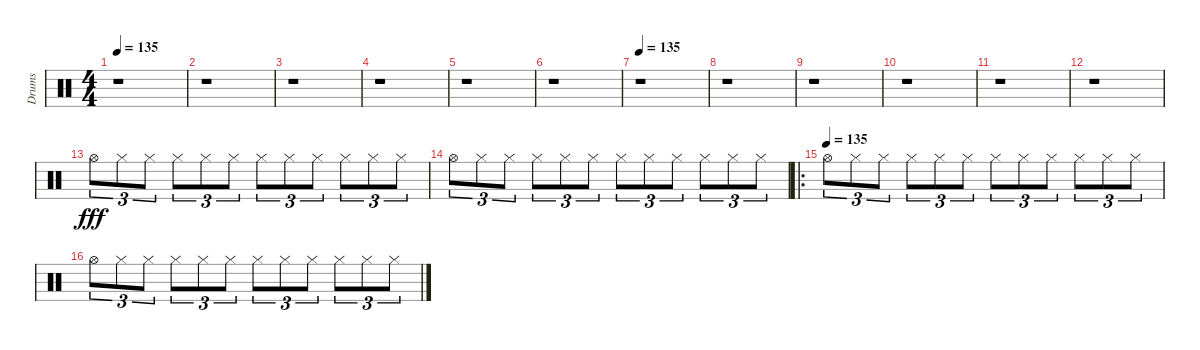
\track ("Drums" "Drums") {instrument percussion}
\staff {score}
\articulation defaults
\ts (4 4)
\tempo 135
\clef neutral
\ks c
r.1{dy fff} |
r.1 |
r.1 |
r.1 |
r.1 |
r.1 |
\tempo 135
r.1 |
r.1 |
r.1 |
r.1 |
r.1 |
r.1 |
"Hi-Hat (open)".8{tu (3 2)} "Hi-Hat (closed)".8{tu (3 2)} "Hi-Hat (closed)".8{tu (3 2)} "Hi-Hat (closed)".8{tu (3 2)} "Hi-Hat (closed)".8{tu (3 2)} "Hi-Hat (closed)".8{tu (3 2)} "Hi-Hat (closed)".8{tu (3 2)} "Hi-Hat (closed)".8{tu (3 2)} "Hi-Hat (closed)".8{tu (3 2)} "Hi-Hat (closed)".8{tu (3 2)} "Hi-Hat (closed)".8{tu (3 2)} "Hi-Hat (closed)".8{tu (3 2)} |
"Hi-Hat (open)".8{tu (3 2)} "Hi-Hat (closed)".8{tu (3 2)} "Hi-Hat (closed)".8{tu (3 2)} "Hi-Hat (closed)".8{tu (3 2)} "Hi-Hat (closed)".8{tu (3 2)} "Hi-Hat (closed)".8{tu (3 2)} "Hi-Hat (closed)".8{tu (3 2)} "Hi-Hat (closed)".8{tu (3 2)} "Hi-Hat (closed)".8{tu (3 2)} "Hi-Hat (closed)".8{tu (3 2)} "Hi-Hat (closed)".8{tu (3 2)} "Hi-Hat (closed)".8{tu (3 2)} |
\ro
\tempo (135)
"Hi-Hat (open)".8{tu (3 2)} "Hi-Hat (closed)".8{tu (3 2)} "Hi-Hat (closed)".8{tu (3 2)} "Hi-Hat (closed)".8{tu (3 2)} "Hi-Hat (closed)".8{tu (3 2)} "Hi-Hat (closed)".8{tu (3 2)} "Hi-Hat (closed)".8{tu (3 2)} "Hi-Hat (closed)".8{tu (3 2)} "Hi-Hat (closed)".8{tu (3 2)} "Hi-Hat (closed)".8{tu (3 2)} "Hi-Hat (closed)".8{tu (3 2)} "Hi-Hat (closed)".8{tu (3 2)} |
"Hi-Hat (open)".8{tu (3 2)} "Hi-Hat (closed)".8{tu (3 2)} "Hi-Hat (closed)".8{tu (3 2)} "Hi-Hat (closed)".8{tu (3 2)} "Hi-Hat (closed)".8{tu (3 2)} "Hi-Hat (closed)".8{tu (3 2)} "Hi-Hat (closed)".8{tu (3 2)} "Hi-Hat (closed)".8{tu (3 2)} "Hi-Hat (closed)".8{tu (3 2)} "Hi-Hat (closed)".8{tu (3 2)} "Hi-Hat (closed)".8{tu (3 2)} "Hi-Hat (closed)".8{tu (3 2)}
